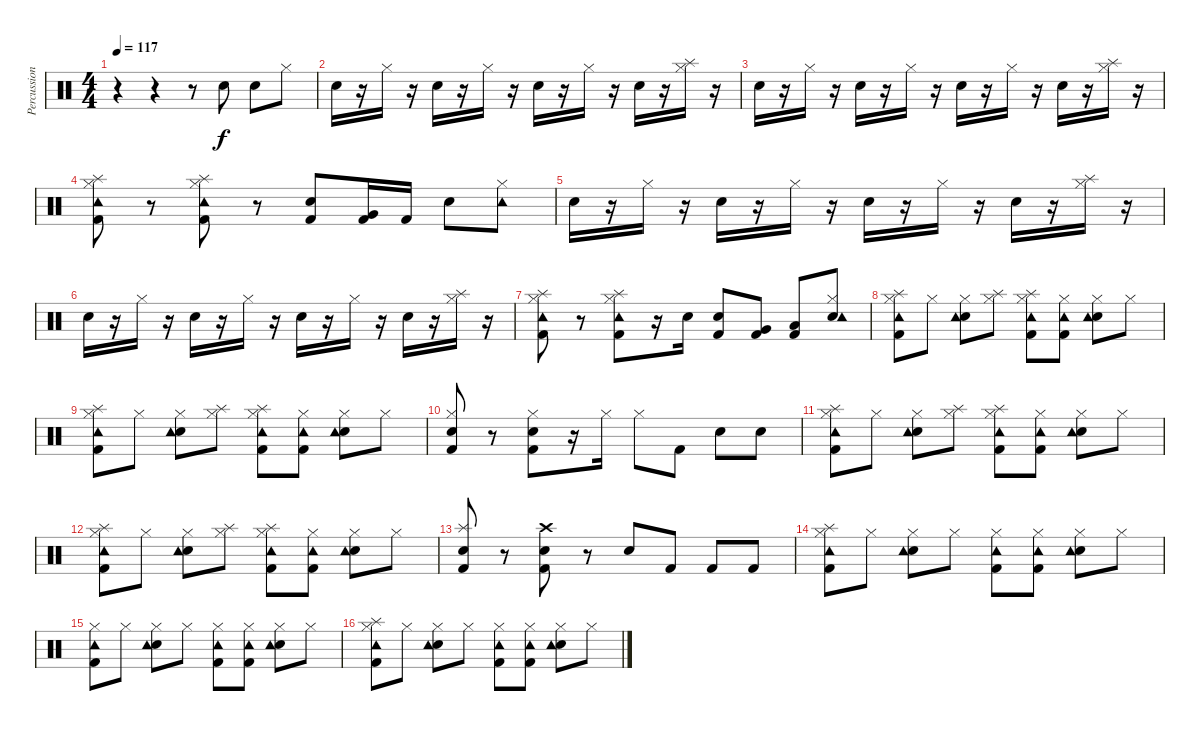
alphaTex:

\track ("Percussion" "Percussion") {instrument percussion}
\staff {score}
\articulation defaults
\ts (4 4)
\tempo 117
\clef neutral
\ks c
r.4{dy f} r.4 r.8 "Electric Snare (hit)".8 "Electric Snare (hit)".8 "Hi-Hat (closed)".8 |
"Electric Snare (hit)".16 r.16 "Hi-Hat (closed)".16 r.16 "Electric Snare (hit)".16 r.16 "Hi-Hat (closed)".16 r.16 "Electric Snare (hit)".16 r.16 "Hi-Hat (closed)".16 r.16 "Electric Snare (hit)".16 r.16 ("Hi-Hat (closed)" "Splash (hit)").16 r.16 |
"Electric Snare (hit)".16 r.16 "Hi-Hat (closed)".16 r.16 "Electric Snare (hit)".16 r.16 "Hi-Hat (closed)".16 r.16 "Electric Snare (hit)".16 r.16 "Hi-Hat (closed)".16 r.16 "Electric Snare (hit)".16 r.16 ("Hi-Hat (closed)" "Splash (hit)").16 r.16 |
("Hi-Hat (closed)" "Tambourine (hit)" "Kick (hit) 2" "Splash (hit)").8 r.8 ("Hi-Hat (closed)" "Tambourine (hit)" "Kick (hit) 2" "Splash (hit)").8 r.8 ("Electric Snare (hit)" "Kick (hit) 2").8 ("Very Low Tom (hit)" "Kick (hit) 2").16 "Kick (hit) 2".16 "Electric Snare (hit)".8 ("Hi-Hat (closed)" "Tambourine (hit)").8 |
"Electric Snare (hit)".16 r.16 "Hi-Hat (closed)".16 r.16 "Electric Snare (hit)".16 r.16 "Hi-Hat (closed)".16 r.16 "Electric Snare (hit)".16 r.16 "Hi-Hat (closed)".16 r.16 "Electric Snare (hit)".16 r.16 ("Hi-Hat (closed)" "Splash (hit)").16 r.16 |
"Electric Snare (hit)".16 r.16 "Hi-Hat (closed)".16 r.16 "Electric Snare (hit)".16 r.16 "Hi-Hat (closed)".16 r.16 "Electric Snare (hit)".16 r.16 "Hi-Hat (closed)".16 r.16 "Electric Snare (hit)".16 r.16 ("Hi-Hat (closed)" "Splash (hit)").16 r.16 |
("Hi-Hat (closed)" "Tambourine (hit)" "Kick (hit) 2" "Splash (hit)").8 r.8 ("Hi-Hat (closed)" "Tambourine (hit)" "Kick (hit) 2" "Splash (hit)").8 r.16 "Electric Snare (hit)".16 ("Electric Snare (hit)" "Kick (hit) 2").8 ("Very Low Tom (hit)" "Kick (hit) 2").8 ("Low Floor Tom (hit)" "Kick (hit) 2").8 ("Hi-Hat (closed)" "Electric Snare (hit)" "Tambourine (hit)").8 |
("Hi-Hat (closed)" "Kick (hit) 2" "Splash (hit)" "Tambourine (hit)").8 "Hi-Hat (closed)".8 ("Hi-Hat (closed)" "Electric Snare (hit)" "Tambourine (hit)").8 ("Hi-Hat (closed)" "Splash (hit)").8 ("Hi-Hat (closed)" "Kick (hit) 2" "Splash (hit)" "Tambourine (hit)").8 ("Hi-Hat (closed)" "Kick (hit) 2" "Tambourine (hit)").8 ("Hi-Hat (closed)" "Electric Snare (hit)" "Tambourine (hit)").8 "Hi-Hat (closed)".8 |
("Hi-Hat (closed)" "Kick (hit) 2" "Splash (hit)" "Tambourine (hit)").8 "Hi-Hat (closed)".8 ("Hi-Hat (closed)" "Electric Snare (hit)" "Tambourine (hit)").8 ("Hi-Hat (closed)" "Splash (hit)").8 ("Hi-Hat (closed)" "Kick (hit) 2" "Splash (hit)" "Tambourine (hit)").8 ("Hi-Hat (closed)" "Kick (hit) 2" "Tambourine (hit)").8 ("Hi-Hat (closed)" "Electric Snare (hit)" "Tambourine (hit)").8 "Hi-Hat (closed)".8 |
("Hi-Hat (closed)" "Electric Snare (hit)" "Kick (hit) 2").8 r.8 ("Hi-Hat (closed)" "Electric Snare (hit)" "Kick (hit) 2").8 r.16 "Hi-Hat (closed)".16 "Hi-Hat (closed)".8 "Kick (hit) 2".8 "Electric Snare (hit)".8 "Electric Snare (hit)".8 |
("Hi-Hat (closed)" "Kick (hit) 2" "Splash (hit)" "Tambourine (hit)").8 "Hi-Hat (closed)".8 ("Hi-Hat (closed)" "Electric Snare (hit)" "Tambourine (hit)").8 ("Hi-Hat (closed)" "Splash (hit)").8 ("Hi-Hat (closed)" "Kick (hit) 2" "Splash (hit)" "Tambourine (hit)").8 ("Hi-Hat (closed)" "Kick (hit) 2" "Tambourine (hit)").8 ("Hi-Hat (closed)" "Electric Snare (hit)" "Tambourine (hit)").8 "Hi-Hat (closed)".8 |
("Hi-Hat (closed)" "Kick (hit) 2" "Splash (hit)" "Tambourine (hit)").8 "Hi-Hat (closed)".8 ("Hi-Hat (closed)" "Electric Snare (hit)" "Tambourine (hit)").8 ("Hi-Hat (closed)" "Splash (hit)").8 ("Hi-Hat (closed)" "Kick (hit) 2" "Splash (hit)" "Tambourine (hit)").8 ("Hi-Hat (closed)" "Kick (hit) 2" "Tambourine (hit)").8 ("Hi-Hat (closed)" "Electric Snare (hit)" "Tambourine (hit)").8 "Hi-Hat (closed)".8 |
("Splash (hit)" "Electric Snare (hit)" "Kick (hit) 2").8 r.8 ("Crash high (hit)" "Electric Snare (hit)" "Kick (hit) 2").8 r.8 "Electric Snare (hit)".8 "Kick (hit) 2".8 "Kick (hit) 2".8 "Kick (hit) 2".8 |
("Hi-Hat (closed)" "Kick (hit) 2" "Splash (hit)" "Tambourine (hit)").8 "Hi-Hat (closed)".8 ("Hi-Hat (closed)" "Electric Snare (hit)" "Tambourine (hit)").8 "Hi-Hat (closed)".8 ("Hi-Hat (closed)" "Kick (hit) 2" "Tambourine (hit)").8 ("Hi-Hat (closed)" "Kick (hit) 2" "Tambourine (hit)").8 ("Hi-Hat (closed)" "Electric Snare (hit)" "Tambourine (hit)").8 "Hi-Hat (closed)".8 |
("Hi-Hat (closed)" "Kick (hit) 2" "Tambourine (hit)").8 "Hi-Hat (closed)".8 ("Hi-Hat (closed)" "Electric Snare (hit)" "Tambourine (hit)").8 "Hi-Hat (closed)".8 ("Hi-Hat (closed)" "Kick (hit) 2" "Tambourine (hit)").8 ("Hi-Hat (closed)" "Kick (hit) 2" "Tambourine (hit)").8 ("Hi-Hat (closed)" "Electric Snare (hit)" "Tambourine (hit)").8 "Hi-Hat (closed)".8 |
("Hi-Hat (closed)" "Kick (hit) 2" "Splash (hit)" "Tambourine (hit)").8 "Hi-Hat (closed)".8 ("Hi-Hat (closed)" "Electric Snare (hit)" "Tambourine (hit)").8 "Hi-Hat (closed)".8 ("Hi-Hat (closed)" "Kick (hit) 2" "Tambourine (hit)").8 ("Hi-Hat (closed)" "Kick (hit) 2" "Tambourine (hit)").8 ("Hi-Hat (closed)" "Electric Snare (hit)" "Tambourine (hit)").8 "Hi-Hat (closed)".8
